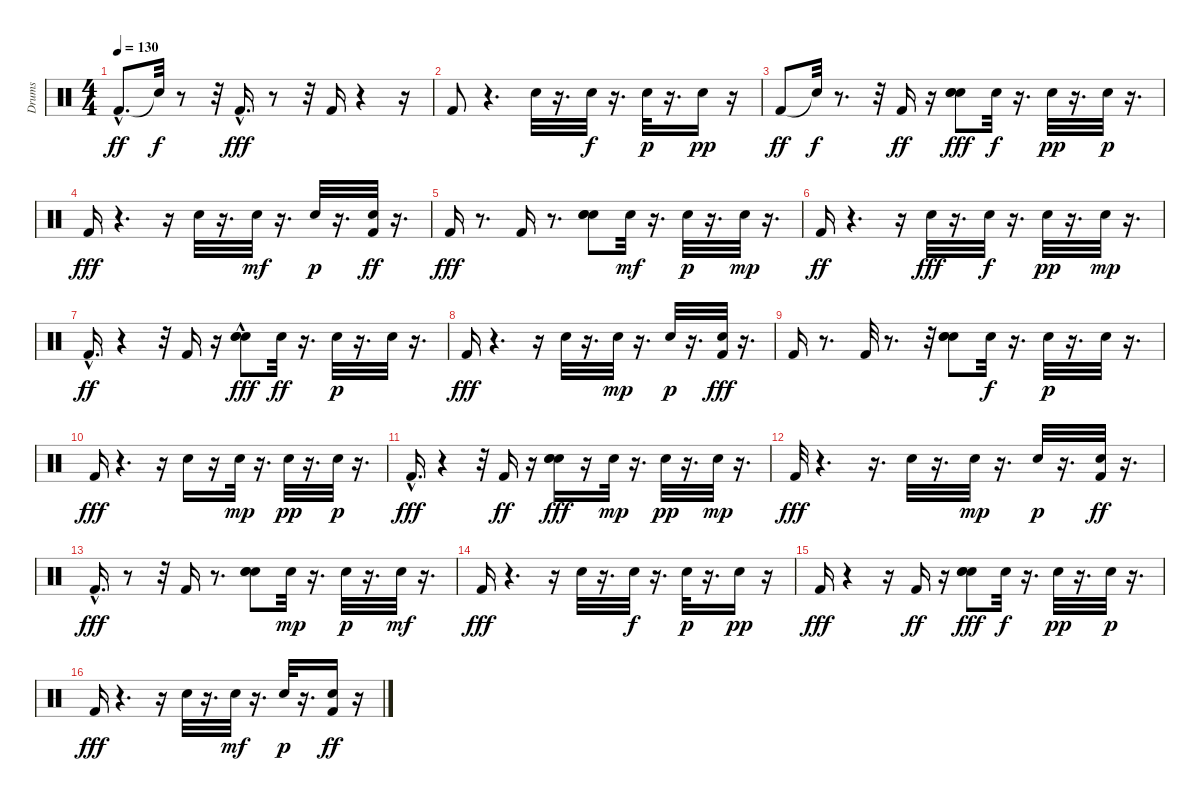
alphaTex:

\track ("Drums" "Drums") {instrument percussion}
\staff {score}
\articulation defaults
\ts (4 4)
\tempo 130
\clef neutral
\ks c "Kick (hit) 2"{hac}.8{d dy ff} "Snare (hit)"{t}.32{dy f}
r.8 r.32 "Kick (hit) 2"{hac}.16{d dy fff} r.8 r.32 "Kick (hit) 2".16 r.4 r.16 |
"Kick (hit) 2".8 r.4{d} "Hand Clap (hit)".32 r.16{d} "Hand Clap (hit)".32{dy f} r.16{d} "Hand Clap (hit)".32{dy p} r.16{d} "Hand Clap (hit)".16{dy pp} r.16 |
"Kick (hit) 2".8{dy ff} "Snare (hit)"{t}.32{dy f} r.8{d} r.32 "Kick (hit) 2".16{dy ff} r.16 ("Hand Clap (hit)" "Hand Clap (hit)" "Snare (hit) 2").8{dy fff} "Hand Clap (hit)".32{dy f} r.16{d} "Hand Clap (hit)".32{dy pp} r.16{d} "Hand Clap (hit)".32{dy p} r.16{d} |
"Kick (hit) 2".16{dy fff} r.4{d} r.16 "Hand Clap (hit)".32 r.16{d} "Hand Clap (hit)".32{dy mf} r.16{d} "Hand Clap (hit)".32{dy p} r.16{d} ("Hand Clap (hit)" "Kick (hit) 2").32{dy ff} r.16{d} |
"Kick (hit) 2".16{dy fff} r.8{d} "Kick (hit) 2".16 r.8{d} ("Hand Clap (hit)" "Hand Clap (hit)" "Snare (hit) 2").8 "Hand Clap (hit)".32{dy mf} r.16{d} "Hand Clap (hit)".32{dy p} r.16{d} "Hand Clap (hit)".32{dy mp} r.16{d} |
"Kick (hit) 2".16{dy ff} r.4{d} r.16 "Hand Clap (hit)".32{dy fff} r.16{d} "Hand Clap (hit)".32{dy f} r.16{d} "Hand Clap (hit)".32{dy pp} r.16{d} "Hand Clap (hit)".32{dy mp} r.16{d} |
"Kick (hit) 2"{hac}.16{d dy ff} r.4 r.32 "Kick (hit) 2".16 r.16 ("Hand Clap (hit)" "Hand Clap (hit)"{hac} "Snare (hit) 2"{hac}).8{dy fff} "Hand Clap (hit)".32{dy ff} r.16{d} "Hand Clap (hit)".32{dy p} r.16{d} "Hand Clap (hit)".32 r.16{d} |
"Kick (hit) 2".16{dy fff} r.4{d} r.16 "Hand Clap (hit)".32 r.16{d} "Hand Clap (hit)".32{dy mp} r.16{d} "Hand Clap (hit)".32{dy p} r.16{d} ("Hand Clap (hit)" "Kick (hit) 2").32{dy fff} r.16{d} |
"Kick (hit) 2".16 r.8{d} "Kick (hit) 2".32 r.8{d} r.32 ("Hand Clap (hit)" "Hand Clap (hit)" "Snare (hit) 2").8 "Hand Clap (hit)".32{dy f} r.16{d} "Hand Clap (hit)".32{dy p} r.16{d} "Hand Clap (hit)".32 r.16{d} |
"Kick (hit) 2".16{dy fff} r.4{d} r.16 "Hand Clap (hit)".16 r.16 "Hand Clap (hit)".32{dy mp} r.16{d} "Hand Clap (hit)".32{dy pp} r.16{d} "Hand Clap (hit)".32{dy p} r.16{d} |
"Kick (hit) 2"{hac}.16{d dy fff} r.4 r.32 "Kick (hit) 2".16{dy ff} r.16 ("Hand Clap (hit)" "Snare (hit) 2" "Hand Clap (hit)").16{dy fff} r.16 "Hand Clap (hit)".32{dy mp} r.16{d} "Hand Clap (hit)".32{dy pp} r.16{d} "Hand Clap (hit)".32{dy mp} r.16{d} |
"Kick (hit) 2".32{dy fff} r.4{d} r.16{d} "Hand Clap (hit)".32 r.16{d} "Hand Clap (hit)".32{dy mp} r.16{d} "Hand Clap (hit)".32{dy p} r.16{d} ("Hand Clap (hit)" "Kick (hit) 2").32{dy ff} r.16{d} |
"Kick (hit) 2"{hac}.16{d dy fff} r.8 r.32 "Kick (hit) 2".16 r.8{d} ("Snare (hit) 2" "Hand Clap (hit)" "Hand Clap (hit)").8 "Hand Clap (hit)".32{dy mp} r.16{d} "Hand Clap (hit)".32{dy p} r.16{d} "Hand Clap (hit)".32{dy mf} r.16{d} |
"Kick (hit) 2".16{dy fff} r.4{d} r.16 "Hand Clap (hit)".32 r.16{d} "Hand Clap (hit)".32{dy f} r.16{d} "Hand Clap (hit)".32{dy p} r.16{d} "Hand Clap (hit)".16{dy pp} r.16 |
"Kick (hit) 2".16{dy fff} r.4 r.16 "Kick (hit) 2".16{dy ff} r.16 ("Hand Clap (hit)" "Snare (hit) 2" "Hand Clap (hit)").8{dy fff} "Hand Clap (hit)".32{dy f} r.16{d} "Hand Clap (hit)".32{dy pp} r.16{d} "Hand Clap (hit)".32{dy p} r.16{d} |
"Kick (hit) 2".16{dy fff} r.4{d} r.16 "Hand Clap (hit)".32 r.16{d} "Hand Clap (hit)".32{dy mf} r.16{d} "Hand Clap (hit)".32{dy p} r.16{d} ("Hand Clap (hit)" "Kick (hit) 2").16{dy ff} r.16
